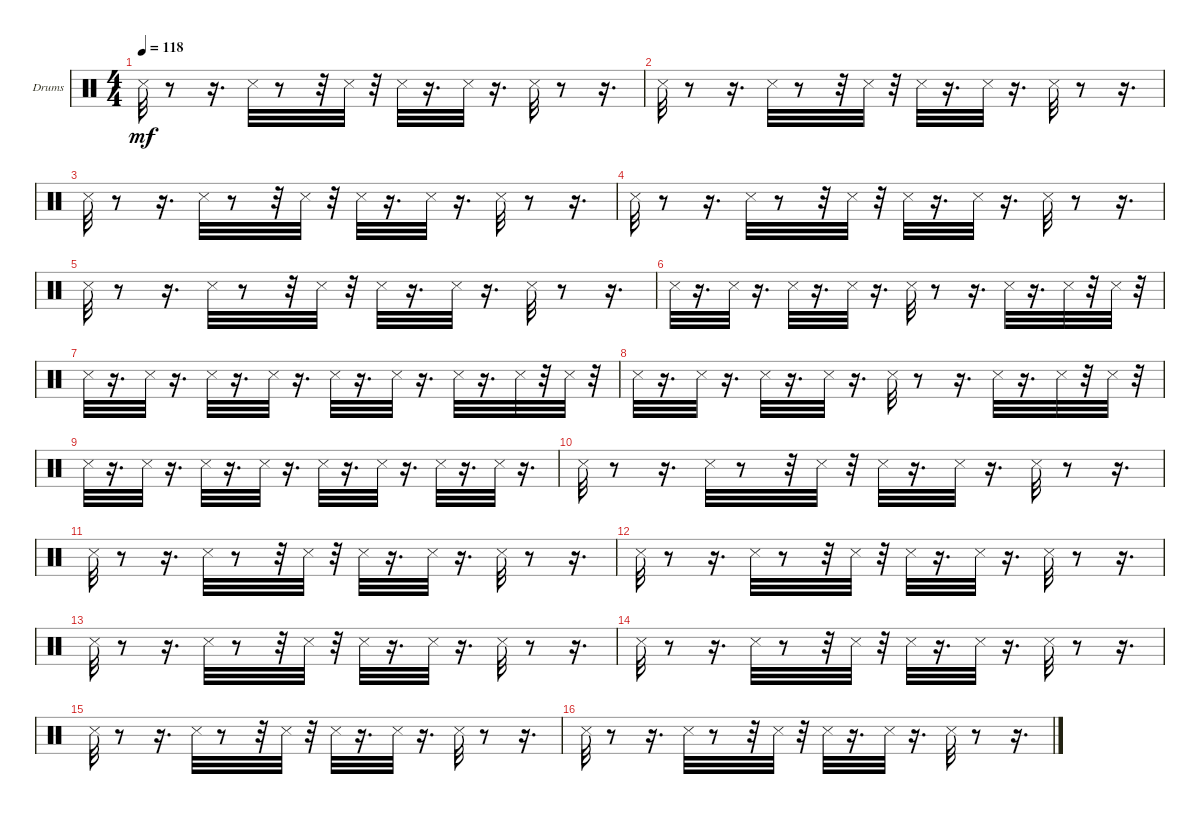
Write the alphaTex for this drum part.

\bracketExtendMode groupsimilarinstruments
\firstSystemTrackNameOrientation horizontal
\otherSystemsTrackNameOrientation horizontal
\track ("Drums" "Drums") {instrument percussion}
\staff {score}
\articulation defaults
\ts (4 4)
\tempo 118
\clef neutral
\ks c "Snare (side stick) 3".32{dy mf}
r.8 r.16{d} "Snare (side stick) 3".32 r.8 r.32 "Snare (side stick) 3".32 r.32 "Snare (side stick) 3".32 r.16{d} "Snare (side stick) 3".32 r.16{d} "Snare (side stick) 3".32 r.8 r.16{d} |
"Snare (side stick) 3".32 r.8 r.16{d} "Snare (side stick) 3".32 r.8 r.32 "Snare (side stick) 3".32 r.32 "Snare (side stick) 3".32 r.16{d} "Snare (side stick) 3".32 r.16{d} "Snare (side stick) 3".32 r.8 r.16{d} |
"Snare (side stick) 3".32 r.8 r.16{d} "Snare (side stick) 3".32 r.8 r.32 "Snare (side stick) 3".32 r.32 "Snare (side stick) 3".32 r.16{d} "Snare (side stick) 3".32 r.16{d} "Snare (side stick) 3".32 r.8 r.16{d} |
"Snare (side stick) 3".32 r.8 r.16{d} "Snare (side stick) 3".32 r.8 r.32 "Snare (side stick) 3".32 r.32 "Snare (side stick) 3".32 r.16{d} "Snare (side stick) 3".32 r.16{d} "Snare (side stick) 3".32 r.8 r.16{d} |
"Snare (side stick) 3".32 r.8 r.16{d} "Snare (side stick) 3".32 r.8 r.32 "Snare (side stick) 3".32 r.32 "Snare (side stick) 3".32 r.16{d} "Snare (side stick) 3".32 r.16{d} "Snare (side stick) 3".32 r.8 r.16{d} |
"Snare (side stick) 3".32 r.16{d} "Snare (side stick) 3".32 r.16{d} "Snare (side stick) 3".32 r.16{d} "Snare (side stick) 3".32 r.16{d} "Snare (side stick) 3".32 r.8 r.16{d} "Snare (side stick) 3".32 r.16{d} "Snare (side stick) 3".32 r.32 "Snare (side stick) 3".32 r.32 |
"Snare (side stick) 3".32 r.16{d} "Snare (side stick) 3".32 r.16{d} "Snare (side stick) 3".32 r.16{d} "Snare (side stick) 3".32 r.16{d} "Snare (side stick) 3".32 r.16{d} "Snare (side stick) 3".32 r.16{d} "Snare (side stick) 3".32 r.16{d} "Snare (side stick) 3".32 r.32 "Snare (side stick) 3".32 r.32 |
"Snare (side stick) 3".32 r.16{d} "Snare (side stick) 3".32 r.16{d} "Snare (side stick) 3".32 r.16{d} "Snare (side stick) 3".32 r.16{d} "Snare (side stick) 3".32 r.8 r.16{d} "Snare (side stick) 3".32 r.16{d} "Snare (side stick) 3".32 r.32 "Snare (side stick) 3".32 r.32 |
"Snare (side stick) 3".32 r.16{d} "Snare (side stick) 3".32 r.16{d} "Snare (side stick) 3".32 r.16{d} "Snare (side stick) 3".32 r.16{d} "Snare (side stick) 3".32 r.16{d} "Snare (side stick) 3".32 r.16{d} "Snare (side stick) 3".32 r.16{d} "Snare (side stick) 3".32 r.16{d} |
"Snare (side stick) 3".32 r.8 r.16{d} "Snare (side stick) 3".32 r.8 r.32 "Snare (side stick) 3".32 r.32 "Snare (side stick) 3".32 r.16{d} "Snare (side stick) 3".32 r.16{d} "Snare (side stick) 3".32 r.8 r.16{d} |
"Snare (side stick) 3".32 r.8 r.16{d} "Snare (side stick) 3".32 r.8 r.32 "Snare (side stick) 3".32 r.32 "Snare (side stick) 3".32 r.16{d} "Snare (side stick) 3".32 r.16{d} "Snare (side stick) 3".32 r.8 r.16{d} |
"Snare (side stick) 3".32 r.8 r.16{d} "Snare (side stick) 3".32 r.8 r.32 "Snare (side stick) 3".32 r.32 "Snare (side stick) 3".32 r.16{d} "Snare (side stick) 3".32 r.16{d} "Snare (side stick) 3".32 r.8 r.16{d} |
"Snare (side stick) 3".32 r.8 r.16{d} "Snare (side stick) 3".32 r.8 r.32 "Snare (side stick) 3".32 r.32 "Snare (side stick) 3".32 r.16{d} "Snare (side stick) 3".32 r.16{d} "Snare (side stick) 3".32 r.8 r.16{d} |
"Snare (side stick) 3".32 r.8 r.16{d} "Snare (side stick) 3".32 r.8 r.32 "Snare (side stick) 3".32 r.32 "Snare (side stick) 3".32 r.16{d} "Snare (side stick) 3".32 r.16{d} "Snare (side stick) 3".32 r.8 r.16{d} |
"Snare (side stick) 3".32 r.8 r.16{d} "Snare (side stick) 3".32 r.8 r.32 "Snare (side stick) 3".32 r.32 "Snare (side stick) 3".32 r.16{d} "Snare (side stick) 3".32 r.16{d} "Snare (side stick) 3".32 r.8 r.16{d} |
"Snare (side stick) 3".32 r.8 r.16{d} "Snare (side stick) 3".32 r.8 r.32 "Snare (side stick) 3".32 r.32 "Snare (side stick) 3".32 r.16{d} "Snare (side stick) 3".32 r.16{d} "Snare (side stick) 3".32 r.8 r.16{d}
